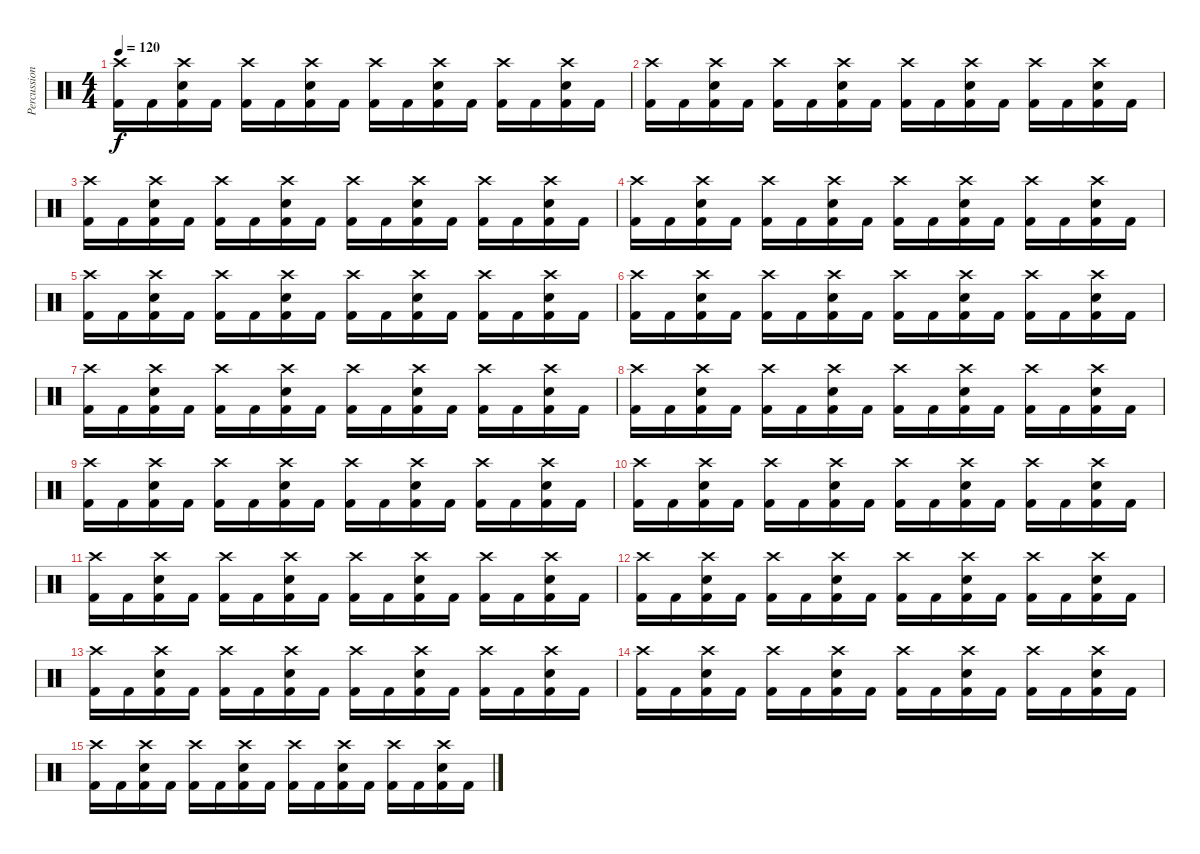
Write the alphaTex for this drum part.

\track ("Percussion" "Percussion") {instrument percussion}
\staff {score}
\articulation defaults
\ts (4 4)
\tempo 120
\clef neutral
\ks c
("Crash high (hit)" "Kick (hit) 2").16{dy f} "Kick (hit) 2".16 ("Crash high (hit)" "Snare (hit) 2" "Kick (hit) 2").16 "Kick (hit) 2".16 ("Crash high (hit)" "Kick (hit) 2").16 "Kick (hit) 2".16 ("Crash high (hit)" "Snare (hit) 2" "Kick (hit) 2").16 "Kick (hit) 2".16 ("Crash high (hit)" "Kick (hit) 2").16 "Kick (hit) 2".16 ("Crash high (hit)" "Snare (hit) 2" "Kick (hit) 2").16 "Kick (hit) 2".16 ("Crash high (hit)" "Kick (hit) 2").16 "Kick (hit) 2".16 ("Crash high (hit)" "Snare (hit) 2" "Kick (hit) 2").16 "Kick (hit) 2".16 |
("Crash high (hit)" "Kick (hit) 2").16 "Kick (hit) 2".16 ("Crash high (hit)" "Snare (hit) 2" "Kick (hit) 2").16 "Kick (hit) 2".16 ("Crash high (hit)" "Kick (hit) 2").16 "Kick (hit) 2".16 ("Crash high (hit)" "Snare (hit) 2" "Kick (hit) 2").16 "Kick (hit) 2".16 ("Crash high (hit)" "Kick (hit) 2").16 "Kick (hit) 2".16 ("Crash high (hit)" "Snare (hit) 2" "Kick (hit) 2").16 "Kick (hit) 2".16 ("Crash high (hit)" "Kick (hit) 2").16 "Kick (hit) 2".16 ("Crash high (hit)" "Snare (hit) 2" "Kick (hit) 2").16 "Kick (hit) 2".16 |
("Crash high (hit)" "Kick (hit) 2").16 "Kick (hit) 2".16 ("Crash high (hit)" "Snare (hit) 2" "Kick (hit) 2").16 "Kick (hit) 2".16 ("Crash high (hit)" "Kick (hit) 2").16 "Kick (hit) 2".16 ("Crash high (hit)" "Snare (hit) 2" "Kick (hit) 2").16 "Kick (hit) 2".16 ("Crash high (hit)" "Kick (hit) 2").16 "Kick (hit) 2".16 ("Crash high (hit)" "Snare (hit) 2" "Kick (hit) 2").16 "Kick (hit) 2".16 ("Crash high (hit)" "Kick (hit) 2").16 "Kick (hit) 2".16 ("Crash high (hit)" "Snare (hit) 2" "Kick (hit) 2").16 "Kick (hit) 2".16 |
("Crash high (hit)" "Kick (hit) 2").16 "Kick (hit) 2".16 ("Crash high (hit)" "Snare (hit) 2" "Kick (hit) 2").16 "Kick (hit) 2".16 ("Crash high (hit)" "Kick (hit) 2").16 "Kick (hit) 2".16 ("Crash high (hit)" "Snare (hit) 2" "Kick (hit) 2").16 "Kick (hit) 2".16 ("Crash high (hit)" "Kick (hit) 2").16 "Kick (hit) 2".16 ("Crash high (hit)" "Snare (hit) 2" "Kick (hit) 2").16 "Kick (hit) 2".16 ("Crash high (hit)" "Kick (hit) 2").16 "Kick (hit) 2".16 ("Crash high (hit)" "Snare (hit) 2" "Kick (hit) 2").16 "Kick (hit) 2".16 |
("Crash high (hit)" "Kick (hit) 2").16 "Kick (hit) 2".16 ("Crash high (hit)" "Snare (hit) 2" "Kick (hit) 2").16 "Kick (hit) 2".16 ("Crash high (hit)" "Kick (hit) 2").16 "Kick (hit) 2".16 ("Crash high (hit)" "Snare (hit) 2" "Kick (hit) 2").16 "Kick (hit) 2".16 ("Crash high (hit)" "Kick (hit) 2").16 "Kick (hit) 2".16 ("Crash high (hit)" "Snare (hit) 2" "Kick (hit) 2").16 "Kick (hit) 2".16 ("Crash high (hit)" "Kick (hit) 2").16 "Kick (hit) 2".16 ("Crash high (hit)" "Snare (hit) 2" "Kick (hit) 2").16 "Kick (hit) 2".16 |
("Crash high (hit)" "Kick (hit) 2").16 "Kick (hit) 2".16 ("Crash high (hit)" "Snare (hit) 2" "Kick (hit) 2").16 "Kick (hit) 2".16 ("Crash high (hit)" "Kick (hit) 2").16 "Kick (hit) 2".16 ("Crash high (hit)" "Snare (hit) 2" "Kick (hit) 2").16 "Kick (hit) 2".16 ("Crash high (hit)" "Kick (hit) 2").16 "Kick (hit) 2".16 ("Crash high (hit)" "Snare (hit) 2" "Kick (hit) 2").16 "Kick (hit) 2".16 ("Crash high (hit)" "Kick (hit) 2").16 "Kick (hit) 2".16 ("Crash high (hit)" "Snare (hit) 2" "Kick (hit) 2").16 "Kick (hit) 2".16 |
("Crash high (hit)" "Kick (hit) 2").16 "Kick (hit) 2".16 ("Crash high (hit)" "Snare (hit) 2" "Kick (hit) 2").16 "Kick (hit) 2".16 ("Crash high (hit)" "Kick (hit) 2").16 "Kick (hit) 2".16 ("Crash high (hit)" "Snare (hit) 2" "Kick (hit) 2").16 "Kick (hit) 2".16 ("Crash high (hit)" "Kick (hit) 2").16 "Kick (hit) 2".16 ("Crash high (hit)" "Snare (hit) 2" "Kick (hit) 2").16 "Kick (hit) 2".16 ("Crash high (hit)" "Kick (hit) 2").16 "Kick (hit) 2".16 ("Crash high (hit)" "Snare (hit) 2" "Kick (hit) 2").16 "Kick (hit) 2".16 |
("Crash high (hit)" "Kick (hit) 2").16 "Kick (hit) 2".16 ("Crash high (hit)" "Snare (hit) 2" "Kick (hit) 2").16 "Kick (hit) 2".16 ("Crash high (hit)" "Kick (hit) 2").16 "Kick (hit) 2".16 ("Crash high (hit)" "Snare (hit) 2" "Kick (hit) 2").16 "Kick (hit) 2".16 ("Crash high (hit)" "Kick (hit) 2").16 "Kick (hit) 2".16 ("Crash high (hit)" "Snare (hit) 2" "Kick (hit) 2").16 "Kick (hit) 2".16 ("Crash high (hit)" "Kick (hit) 2").16 "Kick (hit) 2".16 ("Crash high (hit)" "Snare (hit) 2" "Kick (hit) 2").16 "Kick (hit) 2".16 |
("Crash high (hit)" "Kick (hit) 2").16 "Kick (hit) 2".16 ("Crash high (hit)" "Snare (hit) 2" "Kick (hit) 2").16 "Kick (hit) 2".16 ("Crash high (hit)" "Kick (hit) 2").16 "Kick (hit) 2".16 ("Crash high (hit)" "Snare (hit) 2" "Kick (hit) 2").16 "Kick (hit) 2".16 ("Crash high (hit)" "Kick (hit) 2").16 "Kick (hit) 2".16 ("Crash high (hit)" "Snare (hit) 2" "Kick (hit) 2").16 "Kick (hit) 2".16 ("Crash high (hit)" "Kick (hit) 2").16 "Kick (hit) 2".16 ("Crash high (hit)" "Snare (hit) 2" "Kick (hit) 2").16 "Kick (hit) 2".16 |
("Crash high (hit)" "Kick (hit) 2").16 "Kick (hit) 2".16 ("Crash high (hit)" "Snare (hit) 2" "Kick (hit) 2").16 "Kick (hit) 2".16 ("Crash high (hit)" "Kick (hit) 2").16 "Kick (hit) 2".16 ("Crash high (hit)" "Snare (hit) 2" "Kick (hit) 2").16 "Kick (hit) 2".16 ("Crash high (hit)" "Kick (hit) 2").16 "Kick (hit) 2".16 ("Crash high (hit)" "Snare (hit) 2" "Kick (hit) 2").16 "Kick (hit) 2".16 ("Crash high (hit)" "Kick (hit) 2").16 "Kick (hit) 2".16 ("Crash high (hit)" "Snare (hit) 2" "Kick (hit) 2").16 "Kick (hit) 2".16 |
("Crash high (hit)" "Kick (hit) 2").16 "Kick (hit) 2".16 ("Crash high (hit)" "Snare (hit) 2" "Kick (hit) 2").16 "Kick (hit) 2".16 ("Crash high (hit)" "Kick (hit) 2").16 "Kick (hit) 2".16 ("Crash high (hit)" "Snare (hit) 2" "Kick (hit) 2").16 "Kick (hit) 2".16 ("Crash high (hit)" "Kick (hit) 2").16 "Kick (hit) 2".16 ("Crash high (hit)" "Snare (hit) 2" "Kick (hit) 2").16 "Kick (hit) 2".16 ("Crash high (hit)" "Kick (hit) 2").16 "Kick (hit) 2".16 ("Crash high (hit)" "Snare (hit) 2" "Kick (hit) 2").16 "Kick (hit) 2".16 |
("Crash high (hit)" "Kick (hit) 2").16 "Kick (hit) 2".16 ("Crash high (hit)" "Snare (hit) 2" "Kick (hit) 2").16 "Kick (hit) 2".16 ("Crash high (hit)" "Kick (hit) 2").16 "Kick (hit) 2".16 ("Crash high (hit)" "Snare (hit) 2" "Kick (hit) 2").16 "Kick (hit) 2".16 ("Crash high (hit)" "Kick (hit) 2").16 "Kick (hit) 2".16 ("Crash high (hit)" "Snare (hit) 2" "Kick (hit) 2").16 "Kick (hit) 2".16 ("Crash high (hit)" "Kick (hit) 2").16 "Kick (hit) 2".16 ("Crash high (hit)" "Snare (hit) 2" "Kick (hit) 2").16 "Kick (hit) 2".16 |
("Crash high (hit)" "Kick (hit) 2").16 "Kick (hit) 2".16 ("Crash high (hit)" "Snare (hit) 2" "Kick (hit) 2").16 "Kick (hit) 2".16 ("Crash high (hit)" "Kick (hit) 2").16 "Kick (hit) 2".16 ("Crash high (hit)" "Snare (hit) 2" "Kick (hit) 2").16 "Kick (hit) 2".16 ("Crash high (hit)" "Kick (hit) 2").16 "Kick (hit) 2".16 ("Crash high (hit)" "Snare (hit) 2" "Kick (hit) 2").16 "Kick (hit) 2".16 ("Crash high (hit)" "Kick (hit) 2").16 "Kick (hit) 2".16 ("Crash high (hit)" "Snare (hit) 2" "Kick (hit) 2").16 "Kick (hit) 2".16 |
("Crash high (hit)" "Kick (hit) 2").16 "Kick (hit) 2".16 ("Crash high (hit)" "Snare (hit) 2" "Kick (hit) 2").16 "Kick (hit) 2".16 ("Crash high (hit)" "Kick (hit) 2").16 "Kick (hit) 2".16 ("Crash high (hit)" "Snare (hit) 2" "Kick (hit) 2").16 "Kick (hit) 2".16 ("Crash high (hit)" "Kick (hit) 2").16 "Kick (hit) 2".16 ("Crash high (hit)" "Snare (hit) 2" "Kick (hit) 2").16 "Kick (hit) 2".16 ("Crash high (hit)" "Kick (hit) 2").16 "Kick (hit) 2".16 ("Crash high (hit)" "Snare (hit) 2" "Kick (hit) 2").16 "Kick (hit) 2".16 |
("Crash high (hit)" "Kick (hit) 2").16 "Kick (hit) 2".16 ("Crash high (hit)" "Snare (hit) 2" "Kick (hit) 2").16 "Kick (hit) 2".16 ("Crash high (hit)" "Kick (hit) 2").16 "Kick (hit) 2".16 ("Crash high (hit)" "Snare (hit) 2" "Kick (hit) 2").16 "Kick (hit) 2".16 ("Crash high (hit)" "Kick (hit) 2").16 "Kick (hit) 2".16 ("Crash high (hit)" "Snare (hit) 2" "Kick (hit) 2").16 "Kick (hit) 2".16 ("Crash high (hit)" "Kick (hit) 2").16 "Kick (hit) 2".16 ("Crash high (hit)" "Snare (hit) 2" "Kick (hit) 2").16 "Kick (hit) 2".16
